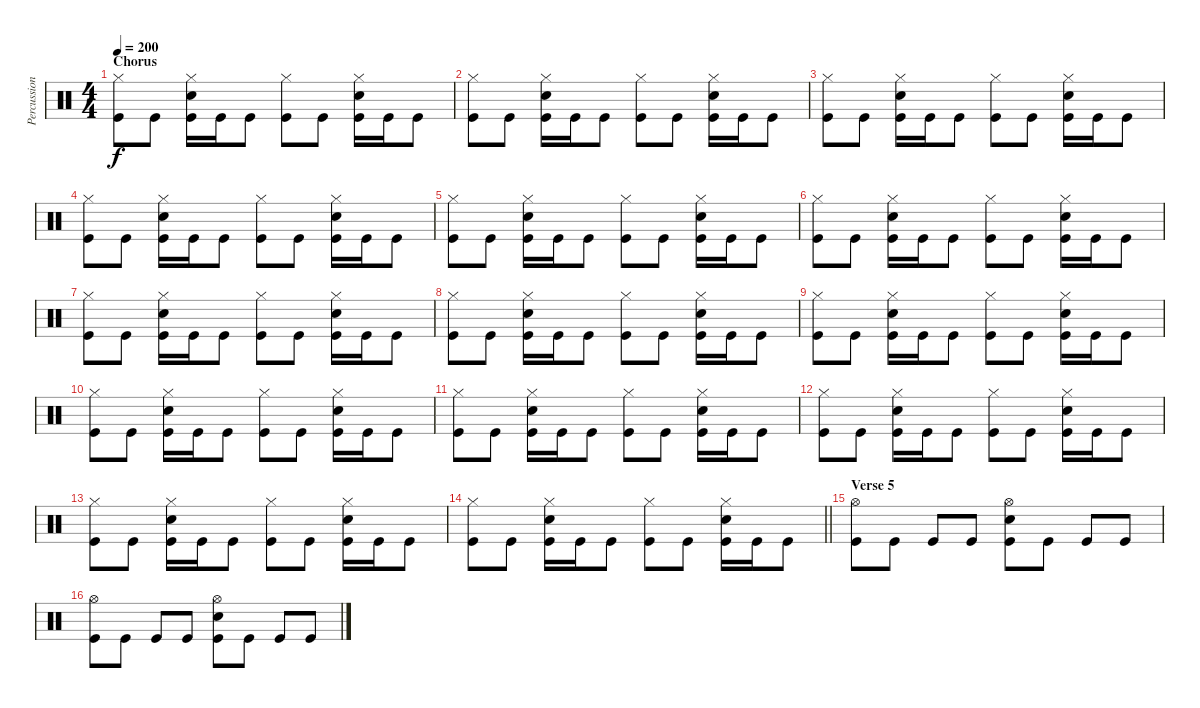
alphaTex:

\track ("Percussion" "Percussion") {instrument percussion}
\staff {score}
\articulation defaults
\ts (4 4)
\section ("" "Chorus")
\tempo 200
\clef neutral
\ks c
("Hi-Hat (closed)" "Kick (hit)").8{dy f} "Kick (hit)".8 ("Snare (hit) 2" "Hi-Hat (closed)" "Kick (hit)").16 "Kick (hit)".16 "Kick (hit)".8 ("Hi-Hat (closed)" "Kick (hit)").8 "Kick (hit)".8 ("Snare (hit) 2" "Hi-Hat (closed)" "Kick (hit)").16 "Kick (hit)".16 "Kick (hit)".8 |
("Hi-Hat (closed)" "Kick (hit)").8 "Kick (hit)".8 ("Snare (hit) 2" "Hi-Hat (closed)" "Kick (hit)").16 "Kick (hit)".16 "Kick (hit)".8 ("Hi-Hat (closed)" "Kick (hit)").8 "Kick (hit)".8 ("Snare (hit) 2" "Hi-Hat (closed)" "Kick (hit)").16 "Kick (hit)".16 "Kick (hit)".8 |
("Hi-Hat (closed)" "Kick (hit)").8 "Kick (hit)".8 ("Snare (hit) 2" "Hi-Hat (closed)" "Kick (hit)").16 "Kick (hit)".16 "Kick (hit)".8 ("Hi-Hat (closed)" "Kick (hit)").8 "Kick (hit)".8 ("Snare (hit) 2" "Hi-Hat (closed)" "Kick (hit)").16 "Kick (hit)".16 "Kick (hit)".8 |
("Hi-Hat (closed)" "Kick (hit)").8 "Kick (hit)".8 ("Snare (hit) 2" "Hi-Hat (closed)" "Kick (hit)").16 "Kick (hit)".16 "Kick (hit)".8 ("Hi-Hat (closed)" "Kick (hit)").8 "Kick (hit)".8 ("Snare (hit) 2" "Hi-Hat (closed)" "Kick (hit)").16 "Kick (hit)".16 "Kick (hit)".8 |
("Hi-Hat (closed)" "Kick (hit)").8 "Kick (hit)".8 ("Snare (hit) 2" "Hi-Hat (closed)" "Kick (hit)").16 "Kick (hit)".16 "Kick (hit)".8 ("Hi-Hat (closed)" "Kick (hit)").8 "Kick (hit)".8 ("Snare (hit) 2" "Hi-Hat (closed)" "Kick (hit)").16 "Kick (hit)".16 "Kick (hit)".8 |
("Hi-Hat (closed)" "Kick (hit)").8 "Kick (hit)".8 ("Snare (hit) 2" "Hi-Hat (closed)" "Kick (hit)").16 "Kick (hit)".16 "Kick (hit)".8 ("Hi-Hat (closed)" "Kick (hit)").8 "Kick (hit)".8 ("Snare (hit) 2" "Hi-Hat (closed)" "Kick (hit)").16 "Kick (hit)".16 "Kick (hit)".8 |
("Hi-Hat (closed)" "Kick (hit)").8 "Kick (hit)".8 ("Snare (hit) 2" "Hi-Hat (closed)" "Kick (hit)").16 "Kick (hit)".16 "Kick (hit)".8 ("Hi-Hat (closed)" "Kick (hit)").8 "Kick (hit)".8 ("Snare (hit) 2" "Hi-Hat (closed)" "Kick (hit)").16 "Kick (hit)".16 "Kick (hit)".8 |
("Hi-Hat (closed)" "Kick (hit)").8 "Kick (hit)".8 ("Snare (hit) 2" "Hi-Hat (closed)" "Kick (hit)").16 "Kick (hit)".16 "Kick (hit)".8 ("Hi-Hat (closed)" "Kick (hit)").8 "Kick (hit)".8 ("Snare (hit) 2" "Hi-Hat (closed)" "Kick (hit)").16 "Kick (hit)".16 "Kick (hit)".8 |
("Hi-Hat (closed)" "Kick (hit)").8 "Kick (hit)".8 ("Snare (hit) 2" "Hi-Hat (closed)" "Kick (hit)").16 "Kick (hit)".16 "Kick (hit)".8 ("Hi-Hat (closed)" "Kick (hit)").8 "Kick (hit)".8 ("Snare (hit) 2" "Hi-Hat (closed)" "Kick (hit)").16 "Kick (hit)".16 "Kick (hit)".8 |
("Hi-Hat (closed)" "Kick (hit)").8 "Kick (hit)".8 ("Snare (hit) 2" "Hi-Hat (closed)" "Kick (hit)").16 "Kick (hit)".16 "Kick (hit)".8 ("Hi-Hat (closed)" "Kick (hit)").8 "Kick (hit)".8 ("Snare (hit) 2" "Hi-Hat (closed)" "Kick (hit)").16 "Kick (hit)".16 "Kick (hit)".8 |
("Hi-Hat (closed)" "Kick (hit)").8 "Kick (hit)".8 ("Snare (hit) 2" "Hi-Hat (closed)" "Kick (hit)").16 "Kick (hit)".16 "Kick (hit)".8 ("Hi-Hat (closed)" "Kick (hit)").8 "Kick (hit)".8 ("Snare (hit) 2" "Hi-Hat (closed)" "Kick (hit)").16 "Kick (hit)".16 "Kick (hit)".8 |
("Hi-Hat (closed)" "Kick (hit)").8 "Kick (hit)".8 ("Snare (hit) 2" "Hi-Hat (closed)" "Kick (hit)").16 "Kick (hit)".16 "Kick (hit)".8 ("Hi-Hat (closed)" "Kick (hit)").8 "Kick (hit)".8 ("Snare (hit) 2" "Hi-Hat (closed)" "Kick (hit)").16 "Kick (hit)".16 "Kick (hit)".8 |
("Hi-Hat (closed)" "Kick (hit)").8 "Kick (hit)".8 ("Snare (hit) 2" "Hi-Hat (closed)" "Kick (hit)").16 "Kick (hit)".16 "Kick (hit)".8 ("Hi-Hat (closed)" "Kick (hit)").8 "Kick (hit)".8 ("Snare (hit) 2" "Hi-Hat (closed)" "Kick (hit)").16 "Kick (hit)".16 "Kick (hit)".8 |
\barLineRight lightlight
("Hi-Hat (closed)" "Kick (hit)").8 "Kick (hit)".8 ("Snare (hit) 2" "Hi-Hat (closed)" "Kick (hit)").16 "Kick (hit)".16 "Kick (hit)".8 ("Hi-Hat (closed)" "Kick (hit)").8 "Kick (hit)".8 ("Snare (hit) 2" "Hi-Hat (closed)" "Kick (hit)").16 "Kick (hit)".16 "Kick (hit)".8 |
\section ("" "Verse 5")
("Hi-Hat (open)" "Kick (hit)").8 "Kick (hit)".8 "Kick (hit)".8 "Kick (hit)".8 ("Snare (hit) 2" "Hi-Hat (open)" "Kick (hit)").8 "Kick (hit)".8 "Kick (hit)".8 "Kick (hit)".8 |
("Hi-Hat (open)" "Kick (hit)").8 "Kick (hit)".8 "Kick (hit)".8 "Kick (hit)".8 ("Snare (hit) 2" "Hi-Hat (open)" "Kick (hit)").8 "Kick (hit)".8 "Kick (hit)".8 "Kick (hit)".8
